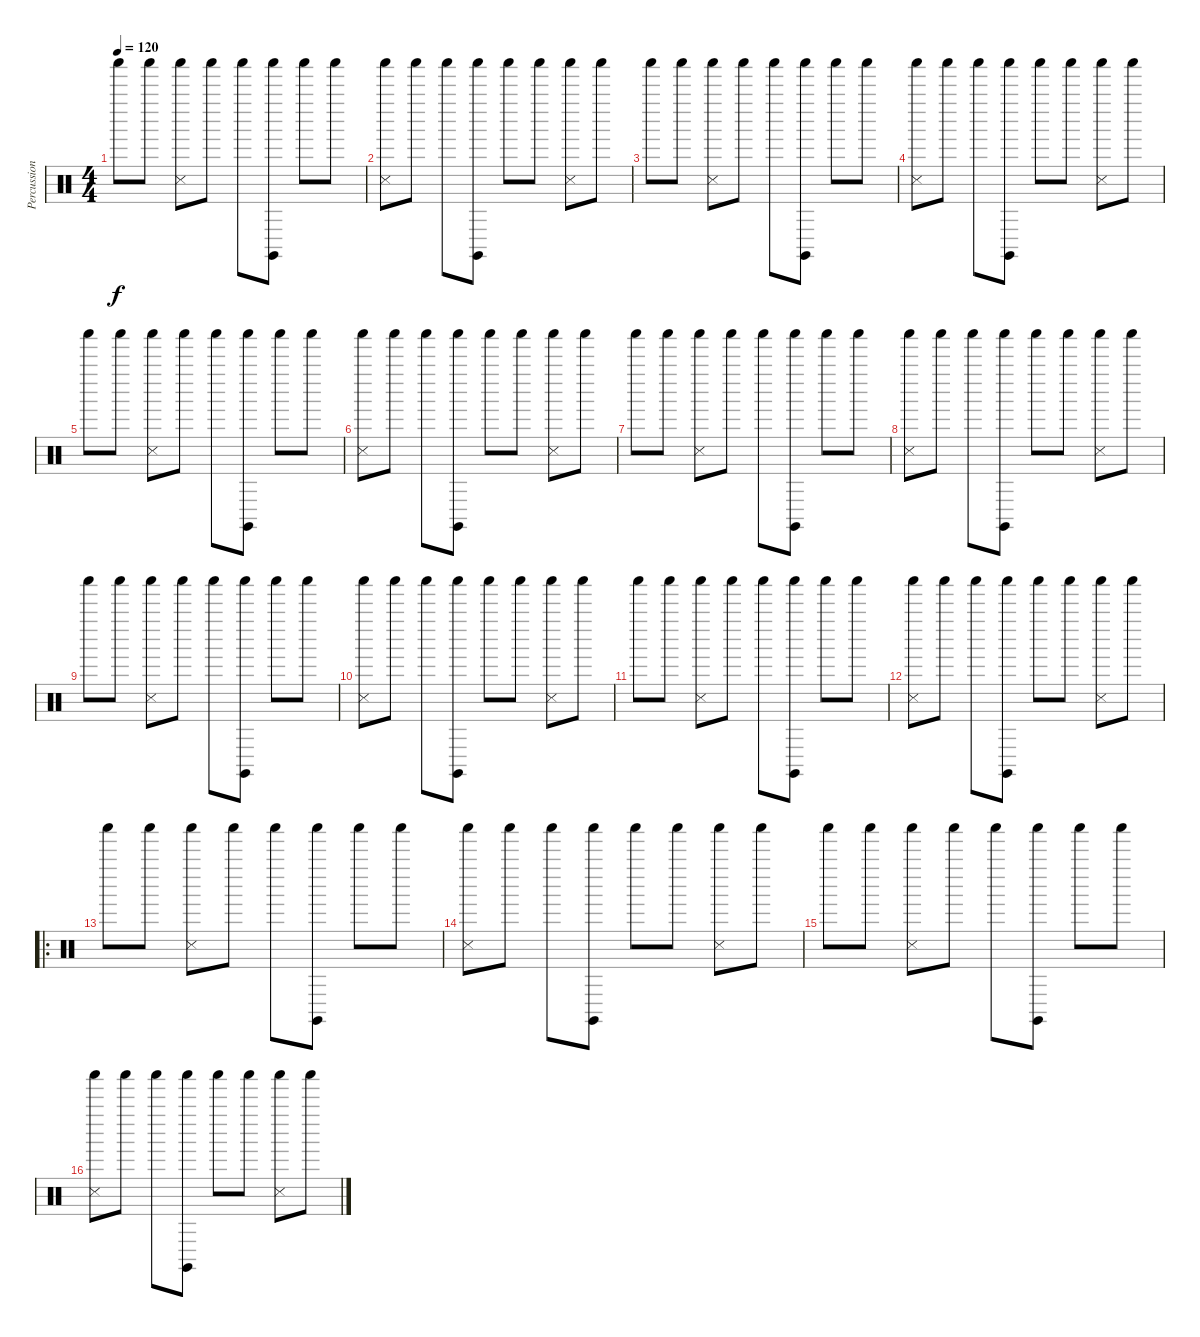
\track ("Percussion" "Percussion") {instrument percussion}
\staff {score}
\articulation defaults
\ts (4 4)
\tempo 120
\clef neutral
\ks c "Shaker (hit)".8{dy f} "Shaker (hit)".8
("Snare (side stick) 3" "Shaker (hit)").8 "Shaker (hit)".8 "Shaker (hit)".8 ("Claves (hit)" "Shaker (hit)").8 "Shaker (hit)".8 "Shaker (hit)".8 |
("Snare (side stick) 3" "Shaker (hit)").8 "Shaker (hit)".8 "Shaker (hit)".8 ("Claves (hit)" "Shaker (hit)").8 "Shaker (hit)".8 "Shaker (hit)".8 ("Snare (side stick) 3" "Shaker (hit)").8 "Shaker (hit)".8 |
"Shaker (hit)".8 "Shaker (hit)".8 ("Snare (side stick) 3" "Shaker (hit)").8 "Shaker (hit)".8 "Shaker (hit)".8 ("Claves (hit)" "Shaker (hit)").8 "Shaker (hit)".8 "Shaker (hit)".8 |
("Snare (side stick) 3" "Shaker (hit)").8 "Shaker (hit)".8 "Shaker (hit)".8 ("Claves (hit)" "Shaker (hit)").8 "Shaker (hit)".8 "Shaker (hit)".8 ("Snare (side stick) 3" "Shaker (hit)").8 "Shaker (hit)".8 |
"Shaker (hit)".8 "Shaker (hit)".8 ("Snare (side stick) 3" "Shaker (hit)").8 "Shaker (hit)".8 "Shaker (hit)".8 ("Claves (hit)" "Shaker (hit)").8 "Shaker (hit)".8 "Shaker (hit)".8 |
("Snare (side stick) 3" "Shaker (hit)").8 "Shaker (hit)".8 "Shaker (hit)".8 ("Claves (hit)" "Shaker (hit)").8 "Shaker (hit)".8 "Shaker (hit)".8 ("Snare (side stick) 3" "Shaker (hit)").8 "Shaker (hit)".8 |
"Shaker (hit)".8 "Shaker (hit)".8 ("Snare (side stick) 3" "Shaker (hit)").8 "Shaker (hit)".8 "Shaker (hit)".8 ("Claves (hit)" "Shaker (hit)").8 "Shaker (hit)".8 "Shaker (hit)".8 |
("Snare (side stick) 3" "Shaker (hit)").8 "Shaker (hit)".8 "Shaker (hit)".8 ("Claves (hit)" "Shaker (hit)").8 "Shaker (hit)".8 "Shaker (hit)".8 ("Snare (side stick) 3" "Shaker (hit)").8 "Shaker (hit)".8 |
"Shaker (hit)".8 "Shaker (hit)".8 ("Snare (side stick) 3" "Shaker (hit)").8 "Shaker (hit)".8 "Shaker (hit)".8 ("Claves (hit)" "Shaker (hit)").8 "Shaker (hit)".8 "Shaker (hit)".8 |
("Snare (side stick) 3" "Shaker (hit)").8 "Shaker (hit)".8 "Shaker (hit)".8 ("Claves (hit)" "Shaker (hit)").8 "Shaker (hit)".8 "Shaker (hit)".8 ("Snare (side stick) 3" "Shaker (hit)").8 "Shaker (hit)".8 |
"Shaker (hit)".8 "Shaker (hit)".8 ("Snare (side stick) 3" "Shaker (hit)").8 "Shaker (hit)".8 "Shaker (hit)".8 ("Claves (hit)" "Shaker (hit)").8 "Shaker (hit)".8 "Shaker (hit)".8 |
("Snare (side stick) 3" "Shaker (hit)").8 "Shaker (hit)".8 "Shaker (hit)".8 ("Claves (hit)" "Shaker (hit)").8 "Shaker (hit)".8 "Shaker (hit)".8 ("Snare (side stick) 3" "Shaker (hit)").8 "Shaker (hit)".8 |
\ro "Shaker (hit)".8 "Shaker (hit)".8
("Snare (side stick) 3" "Shaker (hit)").8 "Shaker (hit)".8 "Shaker (hit)".8 ("Claves (hit)" "Shaker (hit)").8 "Shaker (hit)".8 "Shaker (hit)".8 |
("Snare (side stick) 3" "Shaker (hit)").8 "Shaker (hit)".8 "Shaker (hit)".8 ("Claves (hit)" "Shaker (hit)").8 "Shaker (hit)".8 "Shaker (hit)".8 ("Snare (side stick) 3" "Shaker (hit)").8 "Shaker (hit)".8 |
"Shaker (hit)".8 "Shaker (hit)".8 ("Snare (side stick) 3" "Shaker (hit)").8 "Shaker (hit)".8 "Shaker (hit)".8 ("Claves (hit)" "Shaker (hit)").8 "Shaker (hit)".8 "Shaker (hit)".8 |
("Snare (side stick) 3" "Shaker (hit)").8 "Shaker (hit)".8 "Shaker (hit)".8 ("Claves (hit)" "Shaker (hit)").8 "Shaker (hit)".8 "Shaker (hit)".8 ("Snare (side stick) 3" "Shaker (hit)").8 "Shaker (hit)".8
